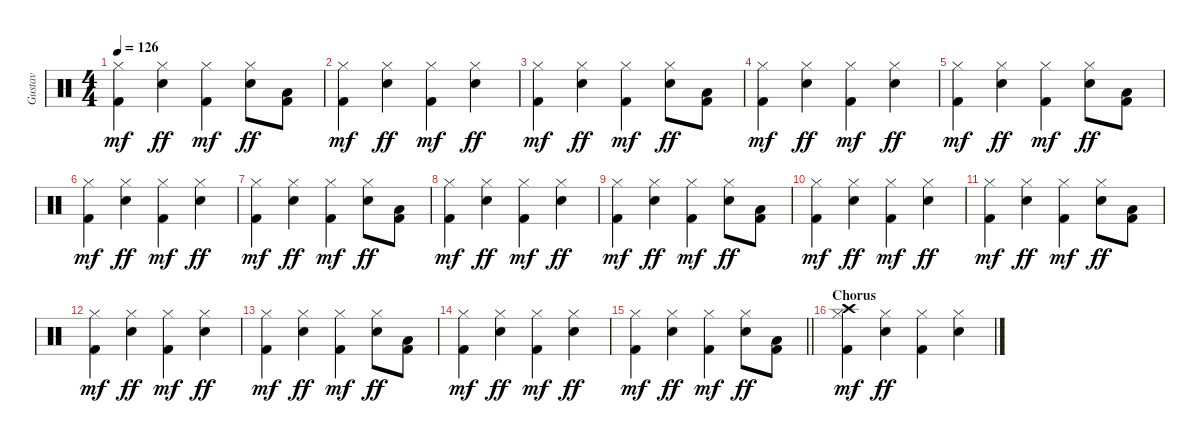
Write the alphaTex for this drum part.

\track ("Gustav" "Gustav") {instrument percussion}
\staff {score}
\articulation defaults
\ts (4 4)
\tempo 126
\clef neutral
\ks c
("Hi-Hat (closed)" "Kick (hit) 2").4{dy mf} ("Hi-Hat (closed)" "Snare (hit) 2").4{dy ff} ("Hi-Hat (closed)" "Kick (hit) 2").4{dy mf} ("Hi-Hat (closed)" "Snare (hit) 2").8{dy ff} ("Low Tom (hit)" "Kick (hit) 2").8 |
("Hi-Hat (closed)" "Kick (hit) 2").4{dy mf} ("Hi-Hat (closed)" "Snare (hit) 2").4{dy ff} ("Hi-Hat (closed)" "Kick (hit) 2").4{dy mf} ("Hi-Hat (closed)" "Snare (hit) 2").4{dy ff} |
("Hi-Hat (closed)" "Kick (hit) 2").4{dy mf} ("Hi-Hat (closed)" "Snare (hit) 2").4{dy ff} ("Hi-Hat (closed)" "Kick (hit) 2").4{dy mf} ("Hi-Hat (closed)" "Snare (hit) 2").8{dy ff} ("Low Tom (hit)" "Kick (hit) 2").8 |
("Hi-Hat (closed)" "Kick (hit) 2").4{dy mf} ("Hi-Hat (closed)" "Snare (hit) 2").4{dy ff} ("Hi-Hat (closed)" "Kick (hit) 2").4{dy mf} ("Hi-Hat (closed)" "Snare (hit) 2").4{dy ff} |
("Hi-Hat (closed)" "Kick (hit) 2").4{dy mf} ("Hi-Hat (closed)" "Snare (hit) 2").4{dy ff} ("Hi-Hat (closed)" "Kick (hit) 2").4{dy mf} ("Hi-Hat (closed)" "Snare (hit) 2").8{dy ff} ("Low Tom (hit)" "Kick (hit) 2").8 |
("Hi-Hat (closed)" "Kick (hit) 2").4{dy mf} ("Hi-Hat (closed)" "Snare (hit) 2").4{dy ff} ("Hi-Hat (closed)" "Kick (hit) 2").4{dy mf} ("Hi-Hat (closed)" "Snare (hit) 2").4{dy ff} |
("Hi-Hat (closed)" "Kick (hit) 2").4{dy mf} ("Hi-Hat (closed)" "Snare (hit) 2").4{dy ff} ("Hi-Hat (closed)" "Kick (hit) 2").4{dy mf} ("Hi-Hat (closed)" "Snare (hit) 2").8{dy ff} ("Low Tom (hit)" "Kick (hit) 2").8 |
("Hi-Hat (closed)" "Kick (hit) 2").4{dy mf} ("Hi-Hat (closed)" "Snare (hit) 2").4{dy ff} ("Hi-Hat (closed)" "Kick (hit) 2").4{dy mf} ("Hi-Hat (closed)" "Snare (hit) 2").4{dy ff} |
("Hi-Hat (closed)" "Kick (hit) 2").4{dy mf} ("Hi-Hat (closed)" "Snare (hit) 2").4{dy ff} ("Hi-Hat (closed)" "Kick (hit) 2").4{dy mf} ("Hi-Hat (closed)" "Snare (hit) 2").8{dy ff} ("Low Tom (hit)" "Kick (hit) 2").8 |
("Hi-Hat (closed)" "Kick (hit) 2").4{dy mf} ("Hi-Hat (closed)" "Snare (hit) 2").4{dy ff} ("Hi-Hat (closed)" "Kick (hit) 2").4{dy mf} ("Hi-Hat (closed)" "Snare (hit) 2").4{dy ff} |
("Hi-Hat (closed)" "Kick (hit) 2").4{dy mf} ("Hi-Hat (closed)" "Snare (hit) 2").4{dy ff} ("Hi-Hat (closed)" "Kick (hit) 2").4{dy mf} ("Hi-Hat (closed)" "Snare (hit) 2").8{dy ff} ("Low Tom (hit)" "Kick (hit) 2").8 |
("Hi-Hat (closed)" "Kick (hit) 2").4{dy mf} ("Hi-Hat (closed)" "Snare (hit) 2").4{dy ff} ("Hi-Hat (closed)" "Kick (hit) 2").4{dy mf} ("Hi-Hat (closed)" "Snare (hit) 2").4{dy ff} |
("Hi-Hat (closed)" "Kick (hit) 2").4{dy mf} ("Hi-Hat (closed)" "Snare (hit) 2").4{dy ff} ("Hi-Hat (closed)" "Kick (hit) 2").4{dy mf} ("Hi-Hat (closed)" "Snare (hit) 2").8{dy ff} ("Low Tom (hit)" "Kick (hit) 2").8 |
("Hi-Hat (closed)" "Kick (hit) 2").4{dy mf} ("Hi-Hat (closed)" "Snare (hit) 2").4{dy ff} ("Hi-Hat (closed)" "Kick (hit) 2").4{dy mf} ("Hi-Hat (closed)" "Snare (hit) 2").4{dy ff} |
\barLineRight lightlight
("Hi-Hat (closed)" "Kick (hit) 2").4{dy mf} ("Hi-Hat (closed)" "Snare (hit) 2").4{dy ff} ("Hi-Hat (closed)" "Kick (hit) 2").4{dy mf} ("Hi-Hat (closed)" "Snare (hit) 2").8{dy ff} ("Low Tom (hit)" "Kick (hit) 2").8 |
\section ("" "Chorus")
("Crash high (hit)" "Hi-Hat (closed)" "Kick (hit) 2").4{dy mf} ("Hi-Hat (closed)" "Snare (hit) 2").4{dy ff} ("Hi-Hat (closed)" "Kick (hit) 2").4 ("Hi-Hat (closed)" "Snare (hit) 2").4
